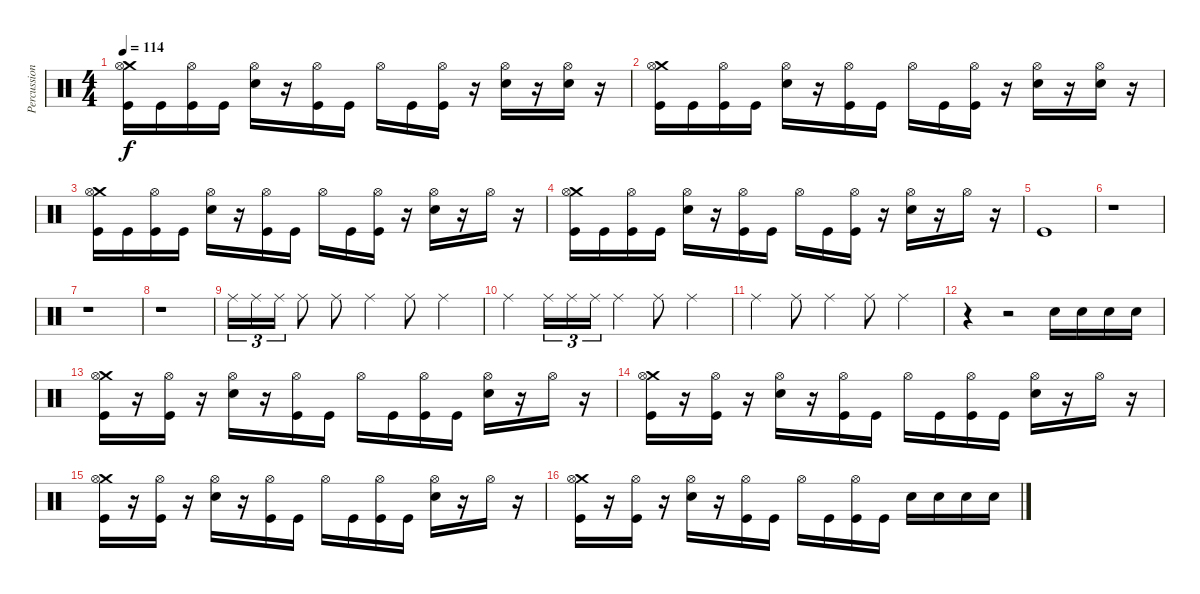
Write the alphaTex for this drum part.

\track ("Percussion" "Percussion") {instrument percussion}
\staff {score}
\articulation defaults
\ts (4 4)
\tempo 114
\clef neutral
\ks c
("Crash medium (hit)" "Hi-Hat (open)" "Kick (hit)").16{dy f} "Kick (hit)".16 ("Hi-Hat (open)" "Kick (hit)").16 "Kick (hit)".16 ("Hi-Hat (open)" "Electric Snare (hit)").16 r.16 ("Hi-Hat (open)" "Kick (hit)").16 "Kick (hit)".16 "Hi-Hat (open)".16 "Kick (hit)".16 ("Hi-Hat (open)" "Kick (hit)").16 r.16 ("Hi-Hat (open)" "Electric Snare (hit)").16 r.16 ("Hi-Hat (open)" "Electric Snare (hit)").16 r.16 |
("Crash medium (hit)" "Hi-Hat (open)" "Kick (hit)").16 "Kick (hit)".16 ("Hi-Hat (open)" "Kick (hit)").16 "Kick (hit)".16 ("Hi-Hat (open)" "Electric Snare (hit)").16 r.16 ("Hi-Hat (open)" "Kick (hit)").16 "Kick (hit)".16 "Hi-Hat (open)".16 "Kick (hit)".16 ("Hi-Hat (open)" "Kick (hit)").16 r.16 ("Hi-Hat (open)" "Electric Snare (hit)").16 r.16 ("Hi-Hat (open)" "Electric Snare (hit)").16 r.16 |
("Crash medium (hit)" "Hi-Hat (open)" "Kick (hit)").16 "Kick (hit)".16 ("Hi-Hat (open)" "Kick (hit)").16 "Kick (hit)".16 ("Hi-Hat (open)" "Electric Snare (hit)").16 r.16 ("Hi-Hat (open)" "Kick (hit)").16 "Kick (hit)".16 "Hi-Hat (open)".16 "Kick (hit)".16 ("Hi-Hat (open)" "Kick (hit)").16 r.16 ("Hi-Hat (open)" "Electric Snare (hit)").16 r.16 "Hi-Hat (open)".16 r.16 |
("Crash medium (hit)" "Hi-Hat (open)" "Kick (hit)").16 "Kick (hit)".16 ("Hi-Hat (open)" "Kick (hit)").16 "Kick (hit)".16 ("Hi-Hat (open)" "Electric Snare (hit)").16 r.16 ("Hi-Hat (open)" "Kick (hit)").16 "Kick (hit)".16 "Hi-Hat (open)".16 "Kick (hit)".16 ("Hi-Hat (open)" "Kick (hit)").16 r.16 ("Hi-Hat (open)" "Electric Snare (hit)").16 r.16 "Hi-Hat (open)".16 r.16 |
"Kick (hit)".1 |
r.1 |
r.1 |
r.1 |
"Ride (middle)".16{tu (3 2)} "Ride (middle)".16{tu (3 2)} "Ride (middle)".16{tu (3 2)} "Ride (middle)".8 "Ride (middle)".8 "Ride (middle)".4 "Ride (middle)".8 "Ride (middle)".4 |
"Ride (middle)".4 "Ride (middle)".16{tu (3 2)} "Ride (middle)".16{tu (3 2)} "Ride (middle)".16{tu (3 2)} "Ride (middle)".4 "Ride (middle)".8 "Ride (middle)".4 |
"Ride (middle)".4 "Ride (middle)".8 "Ride (middle)".4 "Ride (middle)".8 "Ride (middle)".4 |
r.4 r.2 "Electric Snare (hit)".16 "Electric Snare (hit)".16 "Electric Snare (hit)".16 "Electric Snare (hit)".16 |
("Crash medium (hit)" "Hi-Hat (open)" "Kick (hit)").16 r.16 ("Hi-Hat (open)" "Kick (hit)").16 r.16 ("Hi-Hat (open)" "Electric Snare (hit)").16 r.16 ("Hi-Hat (open)" "Kick (hit)").16 "Kick (hit)".16 "Hi-Hat (open)".16 "Kick (hit)".16 ("Hi-Hat (open)" "Kick (hit)").16 "Kick (hit)".16 ("Hi-Hat (open)" "Electric Snare (hit)").16 r.16 "Hi-Hat (open)".16 r.16 |
("Crash medium (hit)" "Hi-Hat (open)" "Kick (hit)").16 r.16 ("Hi-Hat (open)" "Kick (hit)").16 r.16 ("Hi-Hat (open)" "Electric Snare (hit)").16 r.16 ("Hi-Hat (open)" "Kick (hit)").16 "Kick (hit)".16 "Hi-Hat (open)".16 "Kick (hit)".16 ("Hi-Hat (open)" "Kick (hit)").16 "Kick (hit)".16 ("Hi-Hat (open)" "Electric Snare (hit)").16 r.16 "Hi-Hat (open)".16 r.16 |
("Crash medium (hit)" "Hi-Hat (open)" "Kick (hit)").16 r.16 ("Hi-Hat (open)" "Kick (hit)").16 r.16 ("Hi-Hat (open)" "Electric Snare (hit)").16 r.16 ("Hi-Hat (open)" "Kick (hit)").16 "Kick (hit)".16 "Hi-Hat (open)".16 "Kick (hit)".16 ("Hi-Hat (open)" "Kick (hit)").16 "Kick (hit)".16 ("Hi-Hat (open)" "Electric Snare (hit)").16 r.16 "Hi-Hat (open)".16 r.16 |
("Crash medium (hit)" "Hi-Hat (open)" "Kick (hit)").16 r.16 ("Hi-Hat (open)" "Kick (hit)").16 r.16 ("Hi-Hat (open)" "Electric Snare (hit)").16 r.16 ("Hi-Hat (open)" "Kick (hit)").16 "Kick (hit)".16 "Hi-Hat (open)".16 "Kick (hit)".16 ("Hi-Hat (open)" "Kick (hit)").16 "Kick (hit)".16 "Electric Snare (hit)".16 "Electric Snare (hit)".16 "Electric Snare (hit)".16 "Electric Snare (hit)".16
